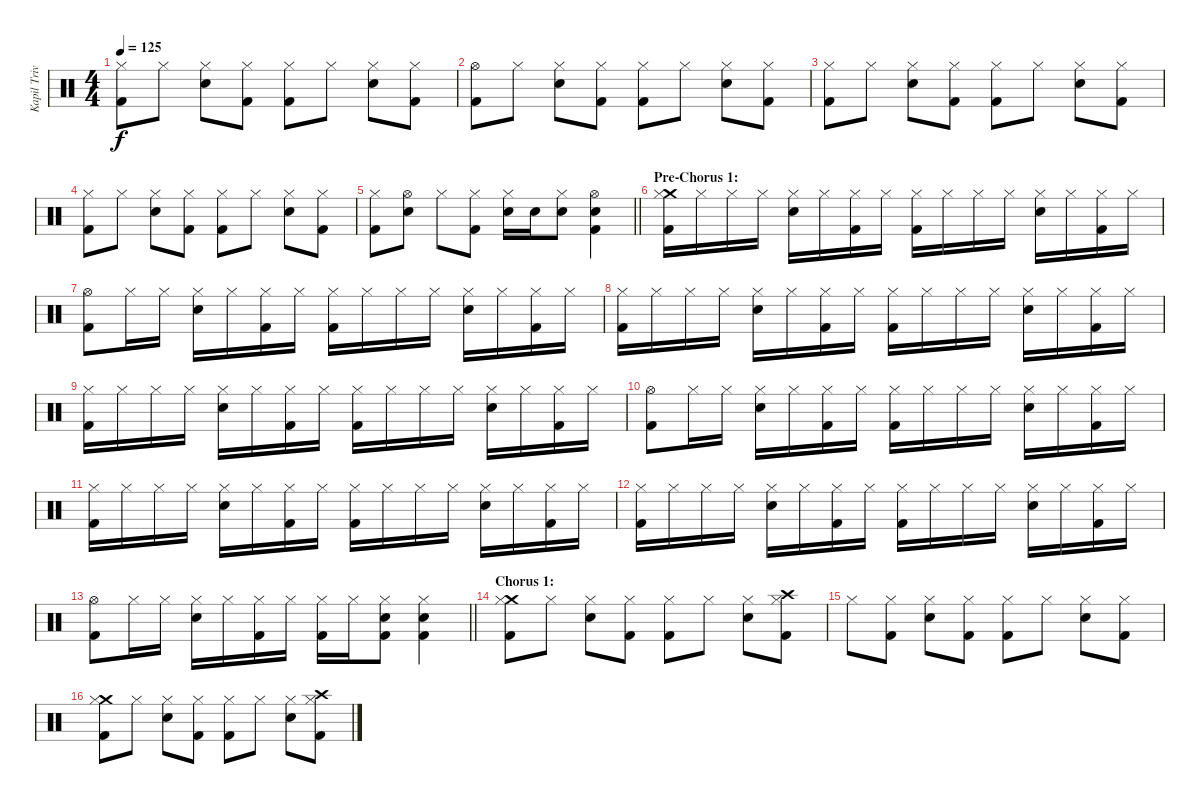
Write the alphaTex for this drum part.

\track ("Kapil Trivedi (Percussion)" "Kapil Triv") {instrument percussion}
\staff {score}
\articulation defaults
\ts (4 4)
\tempo 125
\clef neutral
\ks c
("Hi-Hat (closed)" "Kick (hit) 2").8{dy f} "Hi-Hat (closed)".8 ("Hi-Hat (closed)" "Snare (hit) 2").8 ("Hi-Hat (closed)" "Kick (hit) 2").8 ("Hi-Hat (closed)" "Kick (hit) 2").8 "Hi-Hat (closed)".8 ("Hi-Hat (closed)" "Snare (hit) 2").8 ("Hi-Hat (closed)" "Kick (hit) 2").8 |
("Hi-Hat (open)" "Kick (hit) 2").8 "Hi-Hat (closed)".8 ("Hi-Hat (closed)" "Snare (hit) 2").8 ("Hi-Hat (closed)" "Kick (hit) 2").8 ("Hi-Hat (closed)" "Kick (hit) 2").8 "Hi-Hat (closed)".8 ("Hi-Hat (closed)" "Snare (hit) 2").8 ("Hi-Hat (closed)" "Kick (hit) 2").8 |
("Hi-Hat (closed)" "Kick (hit) 2").8 "Hi-Hat (closed)".8 ("Hi-Hat (closed)" "Snare (hit) 2").8 ("Hi-Hat (closed)" "Kick (hit) 2").8 ("Hi-Hat (closed)" "Kick (hit) 2").8 "Hi-Hat (closed)".8 ("Hi-Hat (closed)" "Snare (hit) 2").8 ("Hi-Hat (closed)" "Kick (hit) 2").8 |
("Hi-Hat (closed)" "Kick (hit) 2").8 "Hi-Hat (closed)".8 ("Hi-Hat (closed)" "Snare (hit) 2").8 ("Hi-Hat (closed)" "Kick (hit) 2").8 ("Hi-Hat (closed)" "Kick (hit) 2").8 "Hi-Hat (closed)".8 ("Hi-Hat (closed)" "Snare (hit) 2").8 ("Hi-Hat (closed)" "Kick (hit) 2").8 |
\barLineRight lightlight
("Hi-Hat (closed)" "Kick (hit) 2").8 ("Hi-Hat (open)" "Snare (hit) 2").8 "Hi-Hat (closed)".8 ("Hi-Hat (closed)" "Kick (hit) 2").8 ("Hi-Hat (closed)" "Snare (hit) 2").16 "Snare (hit) 2".16 ("Hi-Hat (closed)" "Snare (hit) 2").8 ("Hi-Hat (open)" "Snare (hit) 2" "Kick (hit) 2").4 |
\section ("" "Pre-Chorus 1:")
("Crash medium (hit)" "Hi-Hat (closed)" "Kick (hit) 2").16 "Hi-Hat (closed)".16 "Hi-Hat (closed)".16 "Hi-Hat (closed)".16 ("Hi-Hat (closed)" "Snare (hit) 2").16 "Hi-Hat (closed)".16 ("Hi-Hat (closed)" "Kick (hit) 2").16 "Hi-Hat (closed)".16 ("Hi-Hat (closed)" "Kick (hit) 2").16 "Hi-Hat (closed)".16 "Hi-Hat (closed)".16 "Hi-Hat (closed)".16 ("Hi-Hat (closed)" "Snare (hit) 2").16 "Hi-Hat (closed)".16 ("Hi-Hat (closed)" "Kick (hit) 2").16 "Hi-Hat (closed)".16 |
("Hi-Hat (open)" "Kick (hit) 2").8 "Hi-Hat (closed)".16 "Hi-Hat (closed)".16 ("Hi-Hat (closed)" "Snare (hit) 2").16 "Hi-Hat (closed)".16 ("Hi-Hat (closed)" "Kick (hit) 2").16 "Hi-Hat (closed)".16 ("Hi-Hat (closed)" "Kick (hit) 2").16 "Hi-Hat (closed)".16 "Hi-Hat (closed)".16 "Hi-Hat (closed)".16 ("Hi-Hat (closed)" "Snare (hit) 2").16 "Hi-Hat (closed)".16 ("Hi-Hat (closed)" "Kick (hit) 2").16 "Hi-Hat (closed)".16 |
("Hi-Hat (closed)" "Kick (hit) 2").16 "Hi-Hat (closed)".16 "Hi-Hat (closed)".16 "Hi-Hat (closed)".16 ("Hi-Hat (closed)" "Snare (hit) 2").16 "Hi-Hat (closed)".16 ("Hi-Hat (closed)" "Kick (hit) 2").16 "Hi-Hat (closed)".16 ("Hi-Hat (closed)" "Kick (hit) 2").16 "Hi-Hat (closed)".16 "Hi-Hat (closed)".16 "Hi-Hat (closed)".16 ("Hi-Hat (closed)" "Snare (hit) 2").16 "Hi-Hat (closed)".16 ("Hi-Hat (closed)" "Kick (hit) 2").16 "Hi-Hat (closed)".16 |
("Hi-Hat (closed)" "Kick (hit) 2").16 "Hi-Hat (closed)".16 "Hi-Hat (closed)".16 "Hi-Hat (closed)".16 ("Hi-Hat (closed)" "Snare (hit) 2").16 "Hi-Hat (closed)".16 ("Hi-Hat (closed)" "Kick (hit) 2").16 "Hi-Hat (closed)".16 ("Hi-Hat (closed)" "Kick (hit) 2").16 "Hi-Hat (closed)".16 "Hi-Hat (closed)".16 "Hi-Hat (closed)".16 ("Hi-Hat (closed)" "Snare (hit) 2").16 "Hi-Hat (closed)".16 ("Hi-Hat (closed)" "Kick (hit) 2").16 "Hi-Hat (closed)".16 |
("Hi-Hat (open)" "Kick (hit) 2").8 "Hi-Hat (closed)".16 "Hi-Hat (closed)".16 ("Hi-Hat (closed)" "Snare (hit) 2").16 "Hi-Hat (closed)".16 ("Hi-Hat (closed)" "Kick (hit) 2").16 "Hi-Hat (closed)".16 ("Hi-Hat (closed)" "Kick (hit) 2").16 "Hi-Hat (closed)".16 "Hi-Hat (closed)".16 "Hi-Hat (closed)".16 ("Hi-Hat (closed)" "Snare (hit) 2").16 "Hi-Hat (closed)".16 ("Hi-Hat (closed)" "Kick (hit) 2").16 "Hi-Hat (closed)".16 |
("Hi-Hat (closed)" "Kick (hit) 2").16 "Hi-Hat (closed)".16 "Hi-Hat (closed)".16 "Hi-Hat (closed)".16 ("Hi-Hat (closed)" "Snare (hit) 2").16 "Hi-Hat (closed)".16 ("Hi-Hat (closed)" "Kick (hit) 2").16 "Hi-Hat (closed)".16 ("Hi-Hat (closed)" "Kick (hit) 2").16 "Hi-Hat (closed)".16 "Hi-Hat (closed)".16 "Hi-Hat (closed)".16 ("Hi-Hat (closed)" "Snare (hit) 2").16 "Hi-Hat (closed)".16 ("Hi-Hat (closed)" "Kick (hit) 2").16 "Hi-Hat (closed)".16 |
("Hi-Hat (closed)" "Kick (hit) 2").16 "Hi-Hat (closed)".16 "Hi-Hat (closed)".16 "Hi-Hat (closed)".16 ("Hi-Hat (closed)" "Snare (hit) 2").16 "Hi-Hat (closed)".16 ("Hi-Hat (closed)" "Kick (hit) 2").16 "Hi-Hat (closed)".16 ("Hi-Hat (closed)" "Kick (hit) 2").16 "Hi-Hat (closed)".16 "Hi-Hat (closed)".16 "Hi-Hat (closed)".16 ("Hi-Hat (closed)" "Snare (hit) 2").16 "Hi-Hat (closed)".16 ("Hi-Hat (closed)" "Kick (hit) 2").16 "Hi-Hat (closed)".16 |
\barLineRight lightlight
("Hi-Hat (open)" "Kick (hit) 2").8 "Hi-Hat (closed)".16 "Hi-Hat (closed)".16 ("Hi-Hat (closed)" "Snare (hit) 2").16 "Hi-Hat (closed)".16 ("Hi-Hat (closed)" "Kick (hit) 2").16 "Hi-Hat (closed)".16 ("Hi-Hat (closed)" "Kick (hit) 2").16 "Hi-Hat (closed)".16 ("Hi-Hat (closed)" "Snare (hit) 2" "Kick (hit) 2").8 ("Hi-Hat (closed)" "Snare (hit) 2" "Kick (hit) 2").4 |
\section ("" "Chorus 1:")
("Crash medium (hit)" "Hi-Hat (closed)" "Kick (hit) 2").8 "Hi-Hat (closed)".8 ("Hi-Hat (closed)" "Snare (hit) 2").8 ("Hi-Hat (closed)" "Kick (hit) 2").8 ("Hi-Hat (closed)" "Kick (hit) 2").8 "Hi-Hat (closed)".8 ("Hi-Hat (closed)" "Snare (hit) 2").8 ("Crash high (hit)" "Hi-Hat (closed)" "Kick (hit) 2").8 |
"Hi-Hat (closed)".8 ("Hi-Hat (closed)" "Kick (hit) 2").8 ("Hi-Hat (closed)" "Snare (hit) 2").8 ("Hi-Hat (closed)" "Kick (hit) 2").8 ("Hi-Hat (closed)" "Kick (hit) 2").8 "Hi-Hat (closed)".8 ("Hi-Hat (closed)" "Snare (hit) 2").8 ("Hi-Hat (closed)" "Kick (hit) 2").8 |
("Crash medium (hit)" "Hi-Hat (closed)" "Kick (hit) 2").8 "Hi-Hat (closed)".8 ("Hi-Hat (closed)" "Snare (hit) 2").8 ("Hi-Hat (closed)" "Kick (hit) 2").8 ("Hi-Hat (closed)" "Kick (hit) 2").8 "Hi-Hat (closed)".8 ("Hi-Hat (closed)" "Snare (hit) 2").8 ("Crash high (hit)" "Hi-Hat (closed)" "Kick (hit) 2").8
